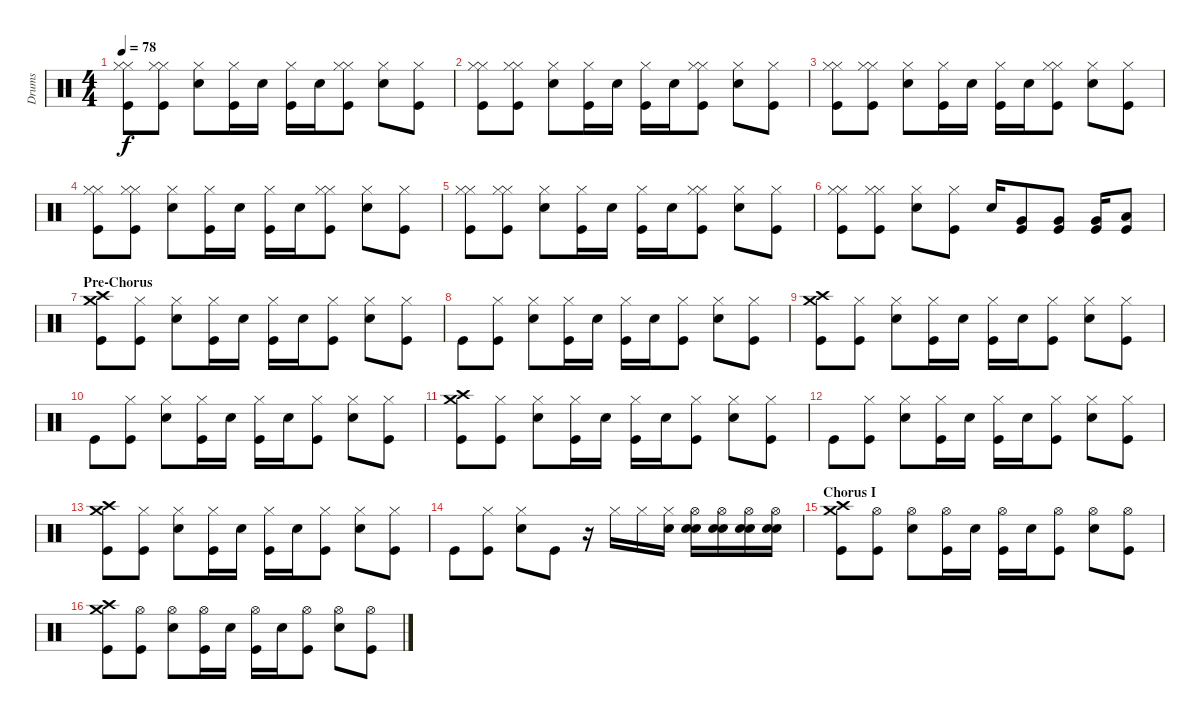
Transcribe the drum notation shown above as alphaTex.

\track ("Drums" "Drums") {instrument percussion}
\staff {score}
\articulation defaults
\ts (4 4)
\tempo 78
\clef neutral
\ks c
("Hi-Hat (closed)" "Hi-Hat (closed)" "Kick (hit)").8{dy f} ("Hi-Hat (closed)" "Hi-Hat (closed)" "Kick (hit)").8 ("Snare (hit) 2" "Hi-Hat (closed)").8 ("Hi-Hat (closed)" "Kick (hit)").16 "Snare (hit) 2".16 ("Hi-Hat (closed)" "Kick (hit)").16 "Snare (hit) 2".16 ("Hi-Hat (closed)" "Hi-Hat (closed)" "Kick (hit)").8 ("Snare (hit) 2" "Hi-Hat (closed)").8 ("Hi-Hat (closed)" "Kick (hit)").8 |
("Hi-Hat (closed)" "Hi-Hat (closed)" "Kick (hit)").8 ("Hi-Hat (closed)" "Hi-Hat (closed)" "Kick (hit)").8 ("Snare (hit) 2" "Hi-Hat (closed)").8 ("Hi-Hat (closed)" "Kick (hit)").16 "Snare (hit) 2".16 ("Hi-Hat (closed)" "Kick (hit)").16 "Snare (hit) 2".16 ("Hi-Hat (closed)" "Hi-Hat (closed)" "Kick (hit)").8 ("Snare (hit) 2" "Hi-Hat (closed)").8 ("Hi-Hat (closed)" "Kick (hit)").8 |
("Hi-Hat (closed)" "Hi-Hat (closed)" "Kick (hit)").8 ("Hi-Hat (closed)" "Hi-Hat (closed)" "Kick (hit)").8 ("Snare (hit) 2" "Hi-Hat (closed)").8 ("Hi-Hat (closed)" "Kick (hit)").16 "Snare (hit) 2".16 ("Hi-Hat (closed)" "Kick (hit)").16 "Snare (hit) 2".16 ("Hi-Hat (closed)" "Hi-Hat (closed)" "Kick (hit)").8 ("Snare (hit) 2" "Hi-Hat (closed)").8 ("Hi-Hat (closed)" "Kick (hit)").8 |
("Hi-Hat (closed)" "Hi-Hat (closed)" "Kick (hit)").8 ("Hi-Hat (closed)" "Hi-Hat (closed)" "Kick (hit)").8 ("Snare (hit) 2" "Hi-Hat (closed)").8 ("Hi-Hat (closed)" "Kick (hit)").16 "Snare (hit) 2".16 ("Hi-Hat (closed)" "Kick (hit)").16 "Snare (hit) 2".16 ("Hi-Hat (closed)" "Hi-Hat (closed)" "Kick (hit)").8 ("Snare (hit) 2" "Hi-Hat (closed)").8 ("Hi-Hat (closed)" "Kick (hit)").8 |
("Hi-Hat (closed)" "Hi-Hat (closed)" "Kick (hit)").8 ("Hi-Hat (closed)" "Hi-Hat (closed)" "Kick (hit)").8 ("Snare (hit) 2" "Hi-Hat (closed)").8 ("Hi-Hat (closed)" "Kick (hit)").16 "Snare (hit) 2".16 ("Hi-Hat (closed)" "Kick (hit)").16 "Snare (hit) 2".16 ("Hi-Hat (closed)" "Hi-Hat (closed)" "Kick (hit)").8 ("Snare (hit) 2" "Hi-Hat (closed)").8 ("Hi-Hat (closed)" "Kick (hit)").8 |
("Hi-Hat (closed)" "Hi-Hat (closed)" "Kick (hit)").8 ("Hi-Hat (closed)" "Hi-Hat (closed)" "Kick (hit)").8 ("Snare (hit) 2" "Hi-Hat (closed)").8 ("Hi-Hat (closed)" "Kick (hit)").8 "Electric Snare (hit)".16 ("Very Low Tom (hit)" "Kick (hit)").8 ("Very Low Tom (hit)" "Kick (hit)").8 ("Very Low Tom (hit)" "Kick (hit)").16 ("Low Floor Tom (hit)" "Kick (hit)").8 |
\section ("" "Pre-Chorus")
("Crash high (hit)" "Crash medium (hit)" "Kick (hit)").8 ("Hi-Hat (closed)" "Kick (hit)").8 ("Electric Snare (hit)" "Hi-Hat (closed)").8 ("Hi-Hat (closed)" "Kick (hit)").16 "Electric Snare (hit)".16 ("Hi-Hat (closed)" "Kick (hit)").16 "Electric Snare (hit)".16 ("Hi-Hat (closed)" "Kick (hit)").8 ("Electric Snare (hit)" "Hi-Hat (closed)").8 ("Hi-Hat (closed)" "Kick (hit)").8 |
"Kick (hit)".8 ("Hi-Hat (closed)" "Kick (hit)").8 ("Electric Snare (hit)" "Hi-Hat (closed)").8 ("Hi-Hat (closed)" "Kick (hit)").16 "Electric Snare (hit)".16 ("Hi-Hat (closed)" "Kick (hit)").16 "Electric Snare (hit)".16 ("Hi-Hat (closed)" "Kick (hit)").8 ("Electric Snare (hit)" "Hi-Hat (closed)").8 ("Hi-Hat (closed)" "Kick (hit)").8 |
("Crash high (hit)" "Crash medium (hit)" "Kick (hit)").8 ("Hi-Hat (closed)" "Kick (hit)").8 ("Electric Snare (hit)" "Hi-Hat (closed)").8 ("Hi-Hat (closed)" "Kick (hit)").16 "Electric Snare (hit)".16 ("Hi-Hat (closed)" "Kick (hit)").16 "Electric Snare (hit)".16 ("Hi-Hat (closed)" "Kick (hit)").8 ("Electric Snare (hit)" "Hi-Hat (closed)").8 ("Hi-Hat (closed)" "Kick (hit)").8 |
"Kick (hit)".8 ("Hi-Hat (closed)" "Kick (hit)").8 ("Electric Snare (hit)" "Hi-Hat (closed)").8 ("Hi-Hat (closed)" "Kick (hit)").16 "Electric Snare (hit)".16 ("Hi-Hat (closed)" "Kick (hit)").16 "Electric Snare (hit)".16 ("Hi-Hat (closed)" "Kick (hit)").8 ("Electric Snare (hit)" "Hi-Hat (closed)").8 ("Hi-Hat (closed)" "Kick (hit)").8 |
("Crash high (hit)" "Crash medium (hit)" "Kick (hit)").8 ("Hi-Hat (closed)" "Kick (hit)").8 ("Electric Snare (hit)" "Hi-Hat (closed)").8 ("Hi-Hat (closed)" "Kick (hit)").16 "Electric Snare (hit)".16 ("Hi-Hat (closed)" "Kick (hit)").16 "Electric Snare (hit)".16 ("Hi-Hat (closed)" "Kick (hit)").8 ("Electric Snare (hit)" "Hi-Hat (closed)").8 ("Hi-Hat (closed)" "Kick (hit)").8 |
"Kick (hit)".8 ("Hi-Hat (closed)" "Kick (hit)").8 ("Electric Snare (hit)" "Hi-Hat (closed)").8 ("Hi-Hat (closed)" "Kick (hit)").16 "Electric Snare (hit)".16 ("Hi-Hat (closed)" "Kick (hit)").16 "Electric Snare (hit)".16 ("Hi-Hat (closed)" "Kick (hit)").8 ("Electric Snare (hit)" "Hi-Hat (closed)").8 ("Hi-Hat (closed)" "Kick (hit)").8 |
("Crash high (hit)" "Crash medium (hit)" "Kick (hit)").8 ("Hi-Hat (closed)" "Kick (hit)").8 ("Electric Snare (hit)" "Hi-Hat (closed)").8 ("Hi-Hat (closed)" "Kick (hit)").16 "Electric Snare (hit)".16 ("Hi-Hat (closed)" "Kick (hit)").16 "Electric Snare (hit)".16 ("Hi-Hat (closed)" "Kick (hit)").8 ("Electric Snare (hit)" "Hi-Hat (closed)").8 ("Hi-Hat (closed)" "Kick (hit)").8 |
"Kick (hit)".8 ("Hi-Hat (closed)" "Kick (hit)").8 ("Electric Snare (hit)" "Hi-Hat (closed)").8 "Kick (hit)".8 r.16 "Hi-Hat (closed)".16 "Hi-Hat (closed)".16 ("Snare (hit) 2" "Hi-Hat (closed)").16 ("Electric Snare (hit)" "Snare (hit) 2" "Hi-Hat (open)").16 ("Electric Snare (hit)" "Snare (hit) 2" "Hi-Hat (open)").16 ("Electric Snare (hit)" "Snare (hit) 2" "Hi-Hat (open)").16 ("Electric Snare (hit)" "Snare (hit) 2" "Hi-Hat (open)").16 |
\section ("" "Chorus I")
("Crash high (hit)" "Crash medium (hit)" "Kick (hit)").8 ("Hi-Hat (open)" "Kick (hit)").8 ("Electric Snare (hit)" "Hi-Hat (open)").8 ("Hi-Hat (open)" "Kick (hit)").16 "Electric Snare (hit)".16 ("Hi-Hat (open)" "Kick (hit)").16 "Electric Snare (hit)".16 ("Hi-Hat (open)" "Kick (hit)").8 ("Electric Snare (hit)" "Hi-Hat (open)").8 ("Hi-Hat (open)" "Kick (hit)").8 |
("Crash high (hit)" "Crash medium (hit)" "Kick (hit)").8 ("Hi-Hat (open)" "Kick (hit)").8 ("Electric Snare (hit)" "Hi-Hat (open)").8 ("Hi-Hat (open)" "Kick (hit)").16 "Electric Snare (hit)".16 ("Hi-Hat (open)" "Kick (hit)").16 "Electric Snare (hit)".16 ("Hi-Hat (open)" "Kick (hit)").8 ("Electric Snare (hit)" "Hi-Hat (open)").8 ("Hi-Hat (open)" "Kick (hit)").8
